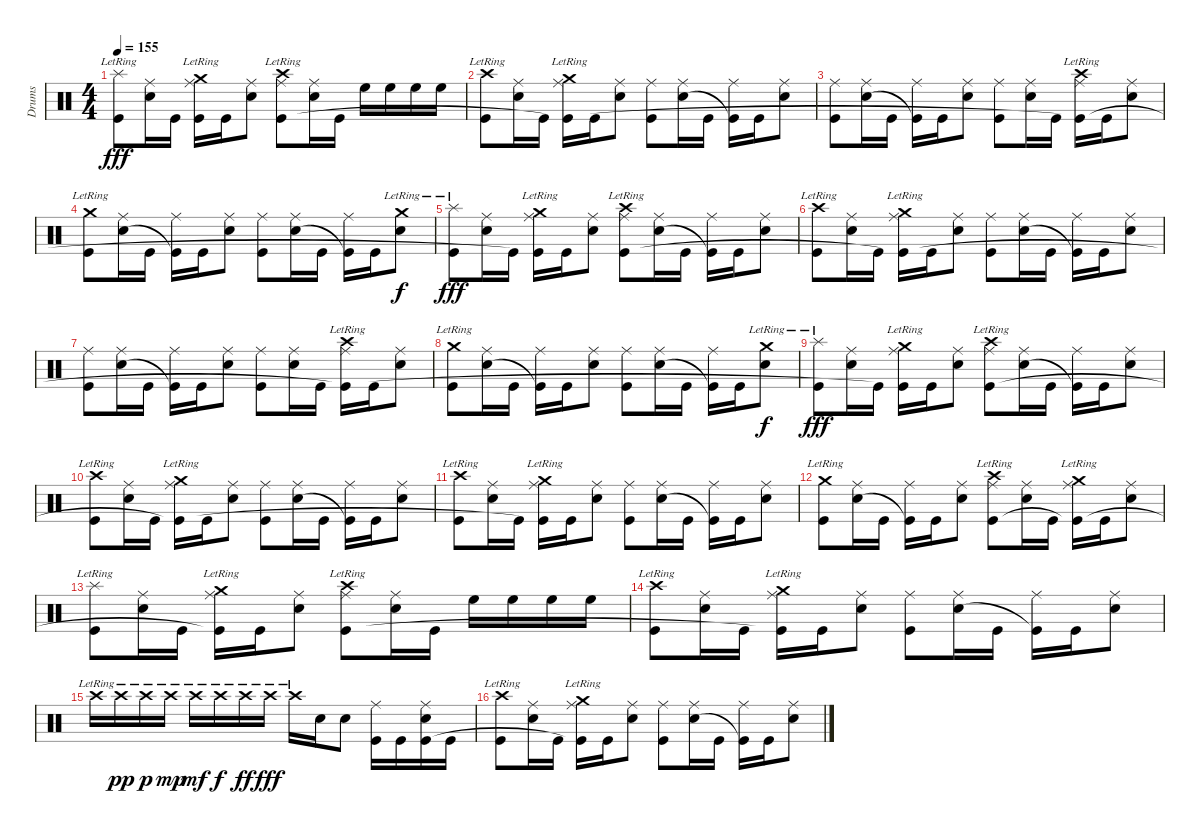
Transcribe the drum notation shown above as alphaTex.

\track ("Drums" "Drums") {instrument percussion}
\staff {score}
\articulation defaults
\ts (4 4)
\tempo 155
\clef neutral
\ks c
("Splash (hit)"{lr} "Kick (hit)").8{dy fff} ("Ride (middle)" "Snare (hit) 2").16 "Kick (hit)".16 ("Crash medium (hit)"{lr} "Ride (middle)" "Kick (hit)"{t}).16 "Kick (hit)".16 ("Ride (middle)" "Snare (hit) 2").8 ("Crash high (hit)"{lr} "Ride (middle)" "Kick (hit)").8 ("Ride (middle)" "Snare (hit) 2").16 "Kick (hit)".16 "High Floor Tom (hit)".16{balance 13} "High Floor Tom (hit)".16 "High Floor Tom (hit)".16 "High Floor Tom (hit)".16 |
("Crash high (hit)"{lr} "Kick (hit)").8{balance 8} ("Ride (middle)" "Snare (hit) 2").16 "Kick (hit)".16 ("Crash medium (hit)"{lr} "Ride (middle)" "Kick (hit)"{t}).16 "Kick (hit)".16 ("Ride (middle)" "Snare (hit) 2").8 ("Ride (middle)" "Kick (hit)").8 ("Ride (middle)" "Snare (hit) 2").16 "Kick (hit)".16 ("Ride (middle)" "Kick (hit)"{t}).16 "Kick (hit)".16 ("Ride (middle)" "Snare (hit) 2").8 |
("Ride (middle)" "Kick (hit)").8 ("Ride (middle)" "Snare (hit) 2").16 "Kick (hit)".16 ("Ride (middle)" "Kick (hit)"{t}).16 "Kick (hit)".16 ("Ride (middle)" "Snare (hit) 2").8 ("Ride (middle)" "Kick (hit)").8 ("Ride (middle)" "Snare (hit) 2").16 "Kick (hit)".16 ("Crash high (hit)"{lr} "Ride (middle)" "Kick (hit)"{t}).16 "Kick (hit)".16 ("Ride (middle)" "Snare (hit) 2").8 |
("Crash medium (hit)"{lr} "Kick (hit)").8 ("Ride (middle)" "Snare (hit) 2").16 "Kick (hit)".16 ("Ride (middle)" "Kick (hit)"{t}).16 "Kick (hit)".16 ("Ride (middle)" "Snare (hit) 2").8 ("Ride (middle)" "Kick (hit)").8 ("Ride (middle)" "Snare (hit) 2").16 "Kick (hit)".16 ("Ride (middle)" "Kick (hit)"{t}).16 "Kick (hit)".16 ("Crash medium (hit)"{lr} "Snare (hit) 2").8{dy f} |
("Splash (hit)"{lr} "Kick (hit)").8{dy fff} ("Ride (middle)" "Snare (hit) 2").16 "Kick (hit)".16 ("Crash medium (hit)"{lr} "Ride (middle)" "Kick (hit)"{t}).16 "Kick (hit)".16 ("Ride (middle)" "Snare (hit) 2").8 ("Crash high (hit)"{lr} "Ride (middle)" "Kick (hit)").8 ("Ride (middle)" "Snare (hit) 2").16 "Kick (hit)".16 ("Ride (middle)" "Kick (hit)"{t}).16 "Kick (hit)".16 ("Ride (middle)" "Snare (hit) 2").8 |
("Crash high (hit)"{lr} "Kick (hit)").8 ("Ride (middle)" "Snare (hit) 2").16 "Kick (hit)".16 ("Crash medium (hit)"{lr} "Ride (middle)" "Kick (hit)"{t}).16 "Kick (hit)".16 ("Ride (middle)" "Snare (hit) 2").8 ("Ride (middle)" "Kick (hit)").8 ("Ride (middle)" "Snare (hit) 2").16 "Kick (hit)".16 ("Ride (middle)" "Kick (hit)"{t}).16 "Kick (hit)".16 ("Ride (middle)" "Snare (hit) 2").8 |
("Ride (middle)" "Kick (hit)").8 ("Ride (middle)" "Snare (hit) 2").16 "Kick (hit)".16 ("Ride (middle)" "Kick (hit)"{t}).16 "Kick (hit)".16 ("Ride (middle)" "Snare (hit) 2").8 ("Ride (middle)" "Kick (hit)").8 ("Ride (middle)" "Snare (hit) 2").16 "Kick (hit)".16 ("Crash high (hit)"{lr} "Ride (middle)" "Kick (hit)"{t}).16 "Kick (hit)".16 ("Ride (middle)" "Snare (hit) 2").8 |
("Crash medium (hit)"{lr} "Kick (hit)").8 ("Ride (middle)" "Snare (hit) 2").16 "Kick (hit)".16 ("Ride (middle)" "Kick (hit)"{t}).16 "Kick (hit)".16 ("Ride (middle)" "Snare (hit) 2").8 ("Ride (middle)" "Kick (hit)").8 ("Ride (middle)" "Snare (hit) 2").16 "Kick (hit)".16 ("Ride (middle)" "Kick (hit)"{t}).16 "Kick (hit)".16 ("Crash medium (hit)"{lr} "Snare (hit) 2").8{dy f} |
("Splash (hit)"{lr} "Kick (hit)").8{dy fff} ("Ride (middle)" "Snare (hit) 2").16 "Kick (hit)".16 ("Crash medium (hit)"{lr} "Ride (middle)" "Kick (hit)"{t}).16 "Kick (hit)".16 ("Ride (middle)" "Snare (hit) 2").8 ("Crash high (hit)"{lr} "Ride (middle)" "Kick (hit)").8 ("Ride (middle)" "Snare (hit) 2").16 "Kick (hit)".16 ("Ride (middle)" "Kick (hit)"{t}).16 "Kick (hit)".16 ("Ride (middle)" "Snare (hit) 2").8 |
("Crash high (hit)"{lr} "Kick (hit)").8 ("Ride (middle)" "Snare (hit) 2").16 "Kick (hit)".16 ("Crash medium (hit)"{lr} "Ride (middle)" "Kick (hit)"{t}).16 "Kick (hit)".16 ("Ride (middle)" "Snare (hit) 2").8 ("Ride (middle)" "Kick (hit)").8 ("Ride (middle)" "Snare (hit) 2").16 "Kick (hit)".16 ("Ride (middle)" "Kick (hit)"{t}).16 "Kick (hit)".16 ("Ride (middle)" "Snare (hit) 2").8 |
("Crash high (hit)"{lr} "Kick (hit)").8 ("Ride (middle)" "Snare (hit) 2").16 "Kick (hit)".16 ("Crash medium (hit)"{lr} "Ride (middle)" "Kick (hit)"{t}).16 "Kick (hit)".16 ("Ride (middle)" "Snare (hit) 2").8 ("Ride (middle)" "Kick (hit)").8 ("Ride (middle)" "Snare (hit) 2").16 "Kick (hit)".16 ("Ride (middle)" "Kick (hit)"{t}).16 "Kick (hit)".16 ("Ride (middle)" "Snare (hit) 2").8 |
("Crash medium (hit)"{lr} "Kick (hit)").8 ("Ride (middle)" "Snare (hit) 2").16 "Kick (hit)".16 ("Ride (middle)" "Kick (hit)"{t}).16 "Kick (hit)".16 ("Ride (middle)" "Snare (hit) 2").8 ("Crash high (hit)"{lr} "Ride (middle)" "Kick (hit)").8 ("Ride (middle)" "Snare (hit) 2").16 "Kick (hit)".16 ("Crash medium (hit)"{lr} "Ride (middle)" "Kick (hit)"{t}).16 "Kick (hit)".16 ("Ride (middle)" "Snare (hit) 2").8 |
("Splash (hit)"{lr} "Kick (hit)").8 ("Ride (middle)" "Snare (hit) 2").16 "Kick (hit)".16 ("Crash medium (hit)"{lr} "Ride (middle)" "Kick (hit)"{t}).16 "Kick (hit)".16 ("Ride (middle)" "Snare (hit) 2").8 ("Crash high (hit)"{lr} "Ride (middle)" "Kick (hit)").8 ("Ride (middle)" "Snare (hit) 2").16 "Kick (hit)".16 "High Floor Tom (hit)".16{balance 13} "High Floor Tom (hit)".16 "High Floor Tom (hit)".16 "High Floor Tom (hit)".16 |
("Crash high (hit)"{lr} "Kick (hit)").8{balance 8} ("Ride (middle)" "Snare (hit) 2").16 "Kick (hit)".16 ("Crash medium (hit)"{lr} "Ride (middle)" "Kick (hit)"{t}).16 "Kick (hit)".16 ("Ride (middle)" "Snare (hit) 2").8 ("Ride (middle)" "Kick (hit)").8 ("Ride (middle)" "Snare (hit) 2").16 "Kick (hit)".16 ("Ride (middle)" "Kick (hit)"{t}).16 "Kick (hit)".16 ("Ride (middle)" "Snare (hit) 2").8 |
"Crash high (hit)"{lr}.16 "Crash high (hit)"{lr}.16{dy pp} "Crash high (hit)"{lr}.16{dy p} "Crash high (hit)"{lr}.16{dy mp} "Crash high (hit)"{lr}.16{dy mf} "Crash high (hit)"{lr}.16{dy f} "Crash high (hit)"{lr}.16{dy ff} "Crash high (hit)"{lr}.16{dy fff} "Crash high (hit)"{lr}.16 "Snare (hit) 2".16 "Snare (hit) 2".8 ("Ride (middle)" "Kick (hit)").16 "Kick (hit)".16 ("Ride (middle)" "Snare (hit) 2" "Kick (hit)").16 "Kick (hit)".16 |
("Crash high (hit)"{lr} "Kick (hit)").8 ("Ride (middle)" "Snare (hit) 2").16 "Kick (hit)".16 ("Crash medium (hit)"{lr} "Ride (middle)" "Kick (hit)"{t}).16 "Kick (hit)".16 ("Ride (middle)" "Snare (hit) 2").8 ("Ride (middle)" "Kick (hit)").8 ("Ride (middle)" "Snare (hit) 2").16 "Kick (hit)".16 ("Ride (middle)" "Kick (hit)"{t}).16 "Kick (hit)".16 ("Ride (middle)" "Snare (hit) 2").8
